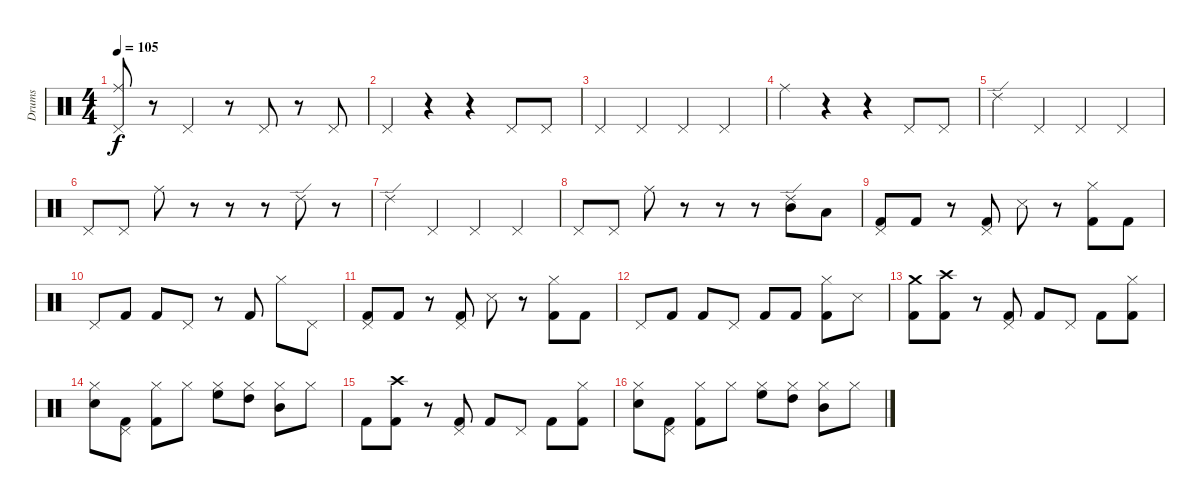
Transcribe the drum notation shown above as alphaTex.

\track (" Drums" " Drums") {instrument percussion}
\staff {score}
\articulation defaults
\ts (4 4)
\tempo 105
\clef neutral
\ks c
("Ride (middle)" "Pedal Hi-Hat (hit)").8{dy f} r.8 "Pedal Hi-Hat (hit)".4 r.8 "Pedal Hi-Hat (hit)".8 r.8 "Pedal Hi-Hat (hit)".8 |
"Pedal Hi-Hat (hit)".4 r.4 r.4 "Pedal Hi-Hat (hit)".8 "Pedal Hi-Hat (hit)".8 |
"Pedal Hi-Hat (hit)".4 "Pedal Hi-Hat (hit)".4 "Pedal Hi-Hat (hit)".4 "Pedal Hi-Hat (hit)".4 |
"Ride (middle)".4 r.4 r.4 "Pedal Hi-Hat (hit)".8 "Pedal Hi-Hat (hit)".8 |
"Ride (edge) 2".4 "Pedal Hi-Hat (hit)".4 "Pedal Hi-Hat (hit)".4 "Pedal Hi-Hat (hit)".4 |
"Pedal Hi-Hat (hit)".8 "Pedal Hi-Hat (hit)".8 "Ride (middle)".8 r.8 r.8 r.8 "Ride (edge) 2".8 r.8 |
"Ride (edge) 2".4 "Pedal Hi-Hat (hit)".4 "Pedal Hi-Hat (hit)".4 "Pedal Hi-Hat (hit)".4 |
"Pedal Hi-Hat (hit)".8 "Pedal Hi-Hat (hit)".8 "Ride (middle)".8 r.8 r.8 r.8 ("Ride (edge) 2" "Mid Tom (hit)").8 "Low Tom (hit)".8 |
("Pedal Hi-Hat (hit)" "Kick (hit) 2").8 "Kick (hit) 2".8 r.8 ("Pedal Hi-Hat (hit)" "Kick (hit) 2").8 "Snare (side stick) 3".8 r.8 ("Kick (hit) 2" "Hi-Hat (closed)").8 "Kick (hit) 2".8 |
"Pedal Hi-Hat (hit)".8 "Kick (hit) 2".8 "Kick (hit) 2".8 "Pedal Hi-Hat (hit)".8 r.8 "Kick (hit) 2".8 "Hi-Hat (closed)".8 "Pedal Hi-Hat (hit)".8 |
("Pedal Hi-Hat (hit)" "Kick (hit) 2").8 "Kick (hit) 2".8 r.8 ("Pedal Hi-Hat (hit)" "Kick (hit) 2").8 "Snare (side stick) 3".8 r.8 ("Kick (hit) 2" "Hi-Hat (closed)").8 "Kick (hit) 2".8 |
"Pedal Hi-Hat (hit)".8 "Kick (hit) 2".8 "Kick (hit) 2".8 "Pedal Hi-Hat (hit)".8 "Kick (hit) 2".8 "Kick (hit) 2".8 ("Hi-Hat (closed)" "Kick (hit) 2").8 "Snare (side stick) 3".8 |
("Crash medium (hit)" "Kick (hit) 2").8 ("Crash high (hit)" "Kick (hit) 2").8 r.8 ("Pedal Hi-Hat (hit)" "Kick (hit) 2").8 "Kick (hit) 2".8 "Pedal Hi-Hat (hit)".8 "Kick (hit) 2".8 ("Hi-Hat (closed)" "Kick (hit) 2").8 |
("Hi-Hat (closed)" "Electric Snare (hit)").8 ("Pedal Hi-Hat (hit)" "Kick (hit) 2").8 ("Hi-Hat (closed)" "Kick (hit) 2").8 "Hi-Hat (closed)".8 ("Hi-Hat (closed)" "High Floor Tom (hit)").8 ("Hi-Hat (closed)" "High Tom (hit)").8 ("Hi-Hat (closed)" "Mid Tom (hit)").8 "Hi-Hat (closed)".8 |
"Kick (hit) 2".8 ("Crash high (hit)" "Kick (hit) 2").8 r.8 ("Pedal Hi-Hat (hit)" "Kick (hit) 2").8 "Kick (hit) 2".8 "Pedal Hi-Hat (hit)".8 "Kick (hit) 2".8 ("Hi-Hat (closed)" "Kick (hit) 2").8 |
("Hi-Hat (closed)" "Electric Snare (hit)").8 ("Pedal Hi-Hat (hit)" "Kick (hit) 2").8 ("Hi-Hat (closed)" "Kick (hit) 2").8 "Hi-Hat (closed)".8 ("Hi-Hat (closed)" "High Floor Tom (hit)").8 ("Hi-Hat (closed)" "High Tom (hit)").8 ("Hi-Hat (closed)" "Mid Tom (hit)").8 "Hi-Hat (closed)".8
